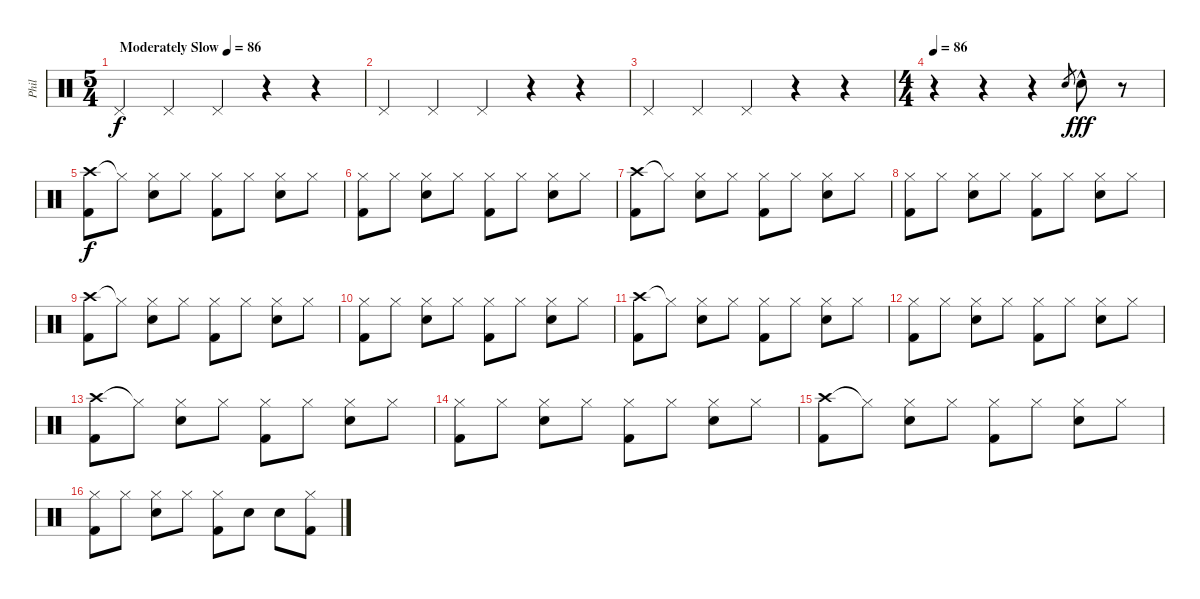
\track ("Phil" "Phil") {instrument percussion}
\staff {score}
\articulation defaults
\ts (5 4)
\tempo (86 "Moderately Slow")
\tempo 102
\tempo (86 "Moderately Slow")
\clef neutral
\ks c "Pedal Hi-Hat (hit)".4{dy f} "Pedal Hi-Hat (hit)".4 "Pedal Hi-Hat (hit)".4
r.4 r.4 |
"Pedal Hi-Hat (hit)".4 "Pedal Hi-Hat (hit)".4 "Pedal Hi-Hat (hit)".4 r.4 r.4 |
"Pedal Hi-Hat (hit)".4 "Pedal Hi-Hat (hit)".4 "Pedal Hi-Hat (hit)".4 r.4 r.4 |
\ts (4 4)
\tempo 86
r.4 r.4 r.4 "Snare (hit) 2".8{gr} "Snare (hit) 2"{hac}.8{dy fff} r.8 |
("Crash high (hit)" "Kick (hit) 2").8{dy f} "Hi-Hat (closed)"{t}.8 ("Hi-Hat (closed)" "Snare (hit) 2").8 "Hi-Hat (closed)".8 ("Hi-Hat (closed)" "Kick (hit) 2").8 "Hi-Hat (closed)".8 ("Hi-Hat (closed)" "Snare (hit) 2").8 "Hi-Hat (closed)".8 |
("Hi-Hat (closed)" "Kick (hit) 2").8 "Hi-Hat (closed)".8 ("Hi-Hat (closed)" "Snare (hit) 2").8 "Hi-Hat (closed)".8 ("Hi-Hat (closed)" "Kick (hit) 2").8 "Hi-Hat (closed)".8 ("Hi-Hat (closed)" "Snare (hit) 2").8 "Hi-Hat (closed)".8 |
("Crash high (hit)" "Kick (hit) 2").8 "Hi-Hat (closed)"{t}.8 ("Hi-Hat (closed)" "Snare (hit) 2").8 "Hi-Hat (closed)".8 ("Hi-Hat (closed)" "Kick (hit) 2").8 "Hi-Hat (closed)".8 ("Hi-Hat (closed)" "Snare (hit) 2").8 "Hi-Hat (closed)".8 |
("Hi-Hat (closed)" "Kick (hit) 2").8 "Hi-Hat (closed)".8 ("Hi-Hat (closed)" "Snare (hit) 2").8 "Hi-Hat (closed)".8 ("Hi-Hat (closed)" "Kick (hit) 2").8 "Hi-Hat (closed)".8 ("Hi-Hat (closed)" "Snare (hit) 2").8 "Hi-Hat (closed)".8 |
("Crash high (hit)" "Kick (hit) 2").8 "Hi-Hat (closed)"{t}.8 ("Hi-Hat (closed)" "Snare (hit) 2").8 "Hi-Hat (closed)".8 ("Hi-Hat (closed)" "Kick (hit) 2").8 "Hi-Hat (closed)".8 ("Hi-Hat (closed)" "Snare (hit) 2").8 "Hi-Hat (closed)".8 |
("Hi-Hat (closed)" "Kick (hit) 2").8 "Hi-Hat (closed)".8 ("Hi-Hat (closed)" "Snare (hit) 2").8 "Hi-Hat (closed)".8 ("Hi-Hat (closed)" "Kick (hit) 2").8 "Hi-Hat (closed)".8 ("Hi-Hat (closed)" "Snare (hit) 2").8 "Hi-Hat (closed)".8 |
("Crash high (hit)" "Kick (hit) 2").8 "Hi-Hat (closed)"{t}.8 ("Hi-Hat (closed)" "Snare (hit) 2").8 "Hi-Hat (closed)".8 ("Hi-Hat (closed)" "Kick (hit) 2").8 "Hi-Hat (closed)".8 ("Hi-Hat (closed)" "Snare (hit) 2").8 "Hi-Hat (closed)".8 |
("Hi-Hat (closed)" "Kick (hit) 2").8 "Hi-Hat (closed)".8 ("Hi-Hat (closed)" "Snare (hit) 2").8 "Hi-Hat (closed)".8 ("Hi-Hat (closed)" "Kick (hit) 2").8 "Hi-Hat (closed)".8 ("Hi-Hat (closed)" "Snare (hit) 2").8 "Hi-Hat (closed)".8 |
("Crash high (hit)" "Kick (hit) 2").8 "Hi-Hat (closed)"{t}.8 ("Hi-Hat (closed)" "Snare (hit) 2").8 "Hi-Hat (closed)".8 ("Hi-Hat (closed)" "Kick (hit) 2").8 "Hi-Hat (closed)".8 ("Hi-Hat (closed)" "Snare (hit) 2").8 "Hi-Hat (closed)".8 |
("Hi-Hat (closed)" "Kick (hit) 2").8 "Hi-Hat (closed)".8 ("Hi-Hat (closed)" "Snare (hit) 2").8 "Hi-Hat (closed)".8 ("Hi-Hat (closed)" "Kick (hit) 2").8 "Hi-Hat (closed)".8 ("Hi-Hat (closed)" "Snare (hit) 2").8 "Hi-Hat (closed)".8 |
("Crash high (hit)" "Kick (hit) 2").8 "Hi-Hat (closed)"{t}.8 ("Hi-Hat (closed)" "Snare (hit) 2").8 "Hi-Hat (closed)".8 ("Hi-Hat (closed)" "Kick (hit) 2").8 "Hi-Hat (closed)".8 ("Hi-Hat (closed)" "Snare (hit) 2").8 "Hi-Hat (closed)".8 |
("Hi-Hat (closed)" "Kick (hit) 2").8 "Hi-Hat (closed)".8 ("Hi-Hat (closed)" "Snare (hit) 2").8 "Hi-Hat (closed)".8 ("Hi-Hat (closed)" "Kick (hit) 2").8 "Snare (hit) 2".8 "Snare (hit) 2".8 ("Hi-Hat (closed)" "Kick (hit) 2").8
